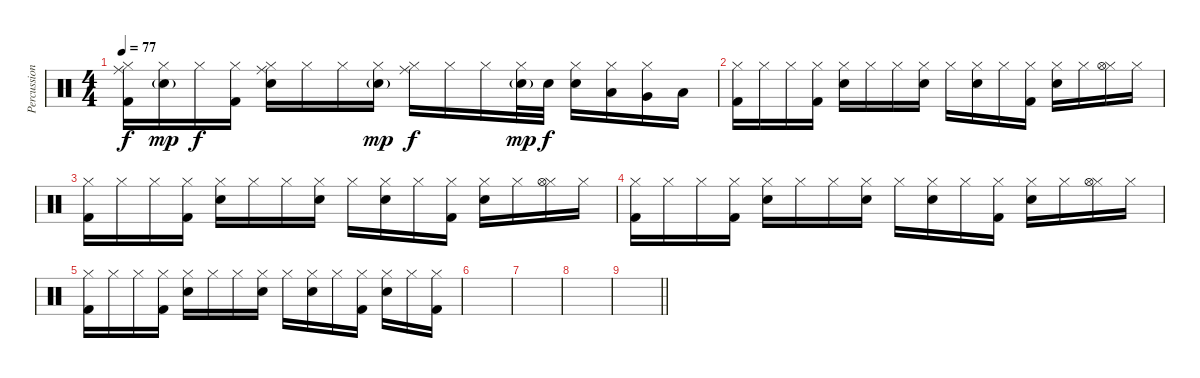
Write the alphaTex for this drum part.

\track ("Percussion" "Percussion") {instrument percussion}
\staff {score}
\articulation defaults
\ts (4 4)
\tempo 77
\clef neutral
\ks c
("Hi-Hat (closed)" "Ride (middle)" "Kick (hit) 2").16{dy f} ("Hi-Hat (closed)" "Electric Snare (hit)"{g}).16{dy mp} "Hi-Hat (closed)".16{dy f} ("Hi-Hat (closed)" "Kick (hit) 2").16 ("Hi-Hat (closed)" "Ride (middle)" "Electric Snare (hit)").16 "Hi-Hat (closed)".16 "Hi-Hat (closed)".16 ("Hi-Hat (closed)" "Electric Snare (hit)"{g}).16{dy mp} ("Hi-Hat (closed)" "Ride (middle)").16{dy f} "Hi-Hat (closed)".16 "Hi-Hat (closed)".16 ("Hi-Hat (closed)" "Electric Snare (hit)"{g}).32{dy mp} "Electric Snare (hit)".32{dy f} ("Hi-Hat (closed)" "Electric Snare (hit)").16 ("Hi-Hat (closed)" "Low Tom (hit)").16 ("Hi-Hat (closed)" "Very Low Tom (hit)").16 "Low Floor Tom (hit)".16 |
("Hi-Hat (closed)" "Kick (hit) 2").16 "Hi-Hat (closed)".16 "Hi-Hat (closed)".16 ("Hi-Hat (closed)" "Kick (hit) 2").16 ("Hi-Hat (closed)" "Electric Snare (hit)").16 "Hi-Hat (closed)".16 "Hi-Hat (closed)".16 ("Hi-Hat (closed)" "Electric Snare (hit)").16 "Hi-Hat (closed)".16 ("Hi-Hat (closed)" "Electric Snare (hit)").16 "Hi-Hat (closed)".16 ("Hi-Hat (closed)" "Kick (hit) 2").16 ("Hi-Hat (closed)" "Electric Snare (hit)").16 "Hi-Hat (closed)".16 ("Hi-Hat (closed)" "Hi-Hat (open)").16 "Hi-Hat (closed)".16 |
("Hi-Hat (closed)" "Kick (hit) 2").16 "Hi-Hat (closed)".16 "Hi-Hat (closed)".16 ("Hi-Hat (closed)" "Kick (hit) 2").16 ("Hi-Hat (closed)" "Electric Snare (hit)").16 "Hi-Hat (closed)".16 "Hi-Hat (closed)".16 ("Hi-Hat (closed)" "Electric Snare (hit)").16 "Hi-Hat (closed)".16 ("Hi-Hat (closed)" "Electric Snare (hit)").16 "Hi-Hat (closed)".16 ("Hi-Hat (closed)" "Kick (hit) 2").16 ("Hi-Hat (closed)" "Electric Snare (hit)").16 "Hi-Hat (closed)".16 ("Hi-Hat (closed)" "Hi-Hat (open)").16 "Hi-Hat (closed)".16 |
("Hi-Hat (closed)" "Kick (hit) 2").16 "Hi-Hat (closed)".16 "Hi-Hat (closed)".16 ("Hi-Hat (closed)" "Kick (hit) 2").16 ("Hi-Hat (closed)" "Electric Snare (hit)").16 "Hi-Hat (closed)".16 "Hi-Hat (closed)".16 ("Hi-Hat (closed)" "Electric Snare (hit)").16 "Hi-Hat (closed)".16 ("Hi-Hat (closed)" "Electric Snare (hit)").16 "Hi-Hat (closed)".16 ("Hi-Hat (closed)" "Kick (hit) 2").16 ("Hi-Hat (closed)" "Electric Snare (hit)").16 "Hi-Hat (closed)".16 ("Hi-Hat (closed)" "Hi-Hat (open)").16 "Hi-Hat (closed)".16 |
("Hi-Hat (closed)" "Kick (hit) 2").16 "Hi-Hat (closed)".16 "Hi-Hat (closed)".16 ("Hi-Hat (closed)" "Kick (hit) 2").16 ("Hi-Hat (closed)" "Electric Snare (hit)").16 "Hi-Hat (closed)".16 "Hi-Hat (closed)".16 ("Hi-Hat (closed)" "Electric Snare (hit)").16 "Hi-Hat (closed)".16 ("Hi-Hat (closed)" "Electric Snare (hit)").16 "Hi-Hat (closed)".16 ("Hi-Hat (closed)" "Kick (hit) 2").16 ("Hi-Hat (closed)" "Electric Snare (hit)").16 "Hi-Hat (closed)".16 ("Hi-Hat (closed)" "Kick (hit) 2").16 |
|
|
|
\barLineRight lightlight
